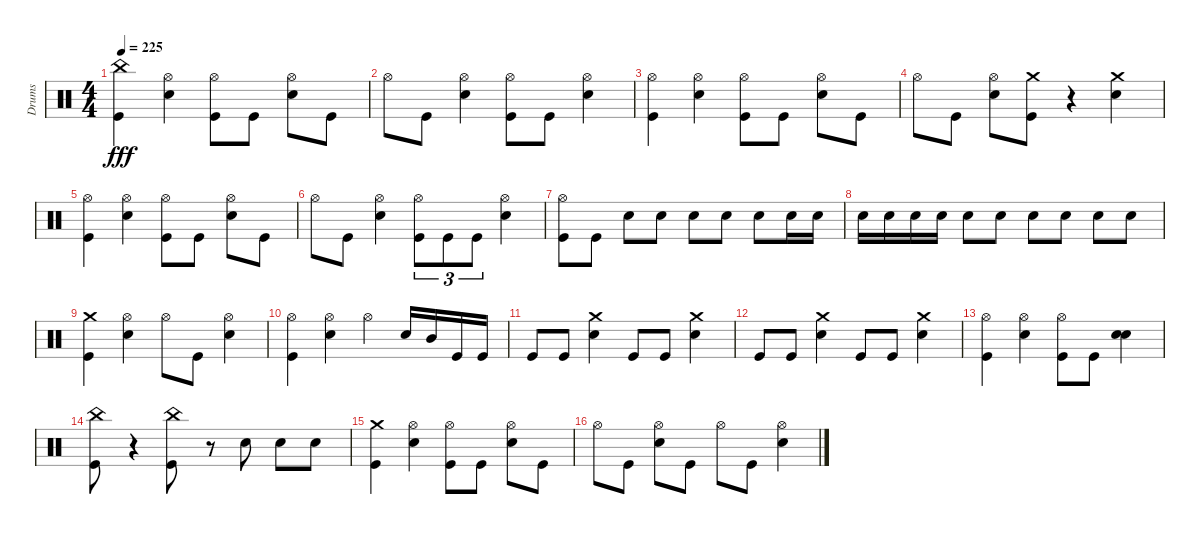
\track ("Drums" "Drums") {instrument percussion}
\staff {score}
\articulation defaults
\ts (4 4)
\tempo 225
\clef neutral
\ks c
("China (hit)" "Kick (hit)").4{dy fff} ("Snare (hit) 2" "Hi-Hat (open)").4 ("Kick (hit)" "Hi-Hat (open)").8 "Kick (hit)".8 ("Snare (hit) 2" "Hi-Hat (open)").8 "Kick (hit)".8 |
"Hi-Hat (open)".8 "Kick (hit)".8 ("Snare (hit) 2" "Hi-Hat (open)").4 ("Kick (hit)" "Hi-Hat (open)").8 "Kick (hit)".8 ("Snare (hit) 2" "Hi-Hat (open)").4 |
("Kick (hit)" "Hi-Hat (open)").4 ("Snare (hit) 2" "Hi-Hat (open)").4 ("Kick (hit)" "Hi-Hat (open)").8 "Kick (hit)".8 ("Snare (hit) 2" "Hi-Hat (open)").8 "Kick (hit)".8 |
"Hi-Hat (open)".8 "Kick (hit)".8 ("Snare (hit) 2" "Hi-Hat (open)").8 ("Crash medium (hit)" "Kick (hit)").8 r.4 ("Snare (hit) 2" "Crash medium (hit)").4 |
("Kick (hit)" "Hi-Hat (open)").4 ("Snare (hit) 2" "Hi-Hat (open)").4 ("Kick (hit)" "Hi-Hat (open)").8 "Kick (hit)".8 ("Snare (hit) 2" "Hi-Hat (open)").8 "Kick (hit)".8 |
"Hi-Hat (open)".8 "Kick (hit)".8 ("Snare (hit) 2" "Hi-Hat (open)").4 ("Kick (hit)" "Hi-Hat (open)").8{tu (3 2)} "Kick (hit)".8{tu (3 2)} "Kick (hit)".8{tu (3 2)} ("Hi-Hat (open)" "Snare (hit) 2").4 |
("Kick (hit)" "Hi-Hat (open)").8 "Kick (hit)".8 "Snare (hit) 2".8 "Snare (hit) 2".8 "Snare (hit) 2".8 "Snare (hit) 2".8 "Snare (hit) 2".8 "Snare (hit) 2".16 "Snare (hit) 2".16 |
"Snare (hit) 2".16 "Snare (hit) 2".16 "Snare (hit) 2".16 "Snare (hit) 2".16 "Snare (hit) 2".8 "Snare (hit) 2".8 "Snare (hit) 2".8 "Snare (hit) 2".8 "Snare (hit) 2".8 "Snare (hit) 2".8 |
("Kick (hit)" "Crash medium (hit)").4 ("Snare (hit) 2" "Hi-Hat (open)").4 "Hi-Hat (open)".8 "Kick (hit)".8 ("Snare (hit) 2" "Hi-Hat (open)").4 |
("Kick (hit)" "Hi-Hat (open)").4 ("Snare (hit) 2" "Hi-Hat (open)").4 "Hi-Hat (open)".4 "Snare (hit) 2".16 "Mid Tom (hit)".16 "Kick (hit)".16 "Kick (hit)".16 |
"Kick (hit)".8 "Kick (hit)".8 ("Snare (hit) 2" "Crash medium (hit)").4 "Kick (hit)".8 "Kick (hit)".8 ("Snare (hit) 2" "Crash medium (hit)").4 |
"Kick (hit)".8 "Kick (hit)".8 ("Crash medium (hit)" "Snare (hit) 2").4 "Kick (hit)".8 "Kick (hit)".8 ("Crash medium (hit)" "Snare (hit) 2").4 |
("Hi-Hat (open)" "Kick (hit)").4 ("Snare (hit) 2" "Hi-Hat (open)").4 ("Kick (hit)" "Hi-Hat (open)").8 "Kick (hit)".8 ("Snare (hit) 2" "Snare (hit) 2").4 |
("China (hit)" "Kick (hit)").8 r.4 ("China (hit)" "Kick (hit)").8 r.8 "Snare (hit) 2".8 "Snare (hit) 2".8 "Snare (hit) 2".8 |
("Kick (hit)" "Crash medium (hit)").4 ("Snare (hit) 2" "Hi-Hat (open)").4 ("Kick (hit)" "Hi-Hat (open)").8 "Kick (hit)".8 ("Snare (hit) 2" "Hi-Hat (open)").8 "Kick (hit)".8 |
"Hi-Hat (open)".8 "Kick (hit)".8 ("Snare (hit) 2" "Hi-Hat (open)").8 "Kick (hit)".8 "Hi-Hat (open)".8 "Kick (hit)".8 ("Snare (hit) 2" "Hi-Hat (open)").4
